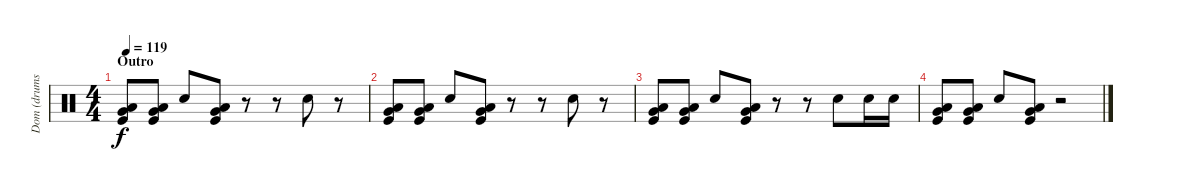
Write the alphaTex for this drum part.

\track ("Dom (drums)" "Dom (drums") {instrument percussion}
\staff {score}
\articulation defaults
\ts (4 4)
\section ("" "Outro")
\tempo 119
\clef neutral
\ks c
("Low Tom (hit)" "Very Low Tom (hit)" "Kick (hit)").8{dy f} ("Low Tom (hit)" "Very Low Tom (hit)" "Kick (hit)").8 "Snare (hit) 2".8 ("Low Tom (hit)" "Very Low Tom (hit)" "Kick (hit)").8 r.8 r.8 "Snare (hit) 2".8 r.8 |
("Low Tom (hit)" "Very Low Tom (hit)" "Kick (hit)").8 ("Low Tom (hit)" "Very Low Tom (hit)" "Kick (hit)").8 "Snare (hit) 2".8 ("Low Tom (hit)" "Very Low Tom (hit)" "Kick (hit)").8 r.8 r.8 "Snare (hit) 2".8 r.8 |
("Low Tom (hit)" "Very Low Tom (hit)" "Kick (hit)").8 ("Low Tom (hit)" "Very Low Tom (hit)" "Kick (hit)").8 "Snare (hit) 2".8 ("Low Tom (hit)" "Very Low Tom (hit)" "Kick (hit)").8 r.8 r.8 "Snare (hit) 2".8 "Snare (hit) 2".16 "Snare (hit) 2".16 |
("Low Tom (hit)" "Very Low Tom (hit)" "Kick (hit)").8 ("Low Tom (hit)" "Very Low Tom (hit)" "Kick (hit)").8 "Snare (hit) 2".8 ("Low Tom (hit)" "Very Low Tom (hit)" "Kick (hit)").8 r.2
